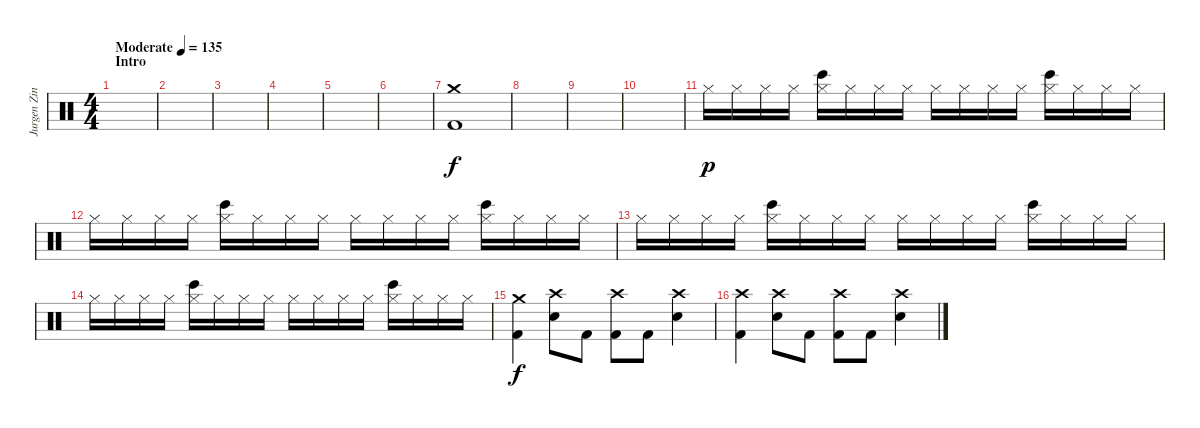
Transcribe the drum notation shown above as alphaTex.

\track ("Jurgen Zing" "Jurgen Zin") {instrument percussion}
\staff {score}
\articulation defaults
\ts (4 4)
\section ("" "Intro")
\tempo (135 "Moderate")
\clef neutral
\ks c
|
|
|
|
|
|
("Crash medium (hit)" "Kick (hit) 2").1 |
|
|
|
"Hi-Hat (closed)".16{dy p} "Hi-Hat (closed)".16 "Hi-Hat (closed)".16 "Hi-Hat (closed)".16 ("Hi-Hat (closed)" "Bongo High (hit)").16 "Hi-Hat (closed)".16 "Hi-Hat (closed)".16 "Hi-Hat (closed)".16 "Hi-Hat (closed)".16 "Hi-Hat (closed)".16 "Hi-Hat (closed)".16 "Hi-Hat (closed)".16 ("Hi-Hat (closed)" "Bongo High (hit)").16 "Hi-Hat (closed)".16 "Hi-Hat (closed)".16 "Hi-Hat (closed)".16 |
"Hi-Hat (closed)".16 "Hi-Hat (closed)".16 "Hi-Hat (closed)".16 "Hi-Hat (closed)".16 ("Hi-Hat (closed)" "Bongo High (hit)").16 "Hi-Hat (closed)".16 "Hi-Hat (closed)".16 "Hi-Hat (closed)".16 "Hi-Hat (closed)".16 "Hi-Hat (closed)".16 "Hi-Hat (closed)".16 "Hi-Hat (closed)".16 ("Hi-Hat (closed)" "Bongo High (hit)").16 "Hi-Hat (closed)".16 "Hi-Hat (closed)".16 "Hi-Hat (closed)".16 |
"Hi-Hat (closed)".16 "Hi-Hat (closed)".16 "Hi-Hat (closed)".16 "Hi-Hat (closed)".16 ("Hi-Hat (closed)" "Bongo High (hit)").16 "Hi-Hat (closed)".16 "Hi-Hat (closed)".16 "Hi-Hat (closed)".16 "Hi-Hat (closed)".16 "Hi-Hat (closed)".16 "Hi-Hat (closed)".16 "Hi-Hat (closed)".16 ("Hi-Hat (closed)" "Bongo High (hit)").16 "Hi-Hat (closed)".16 "Hi-Hat (closed)".16 "Hi-Hat (closed)".16 |
"Hi-Hat (closed)".16 "Hi-Hat (closed)".16 "Hi-Hat (closed)".16 "Hi-Hat (closed)".16 ("Hi-Hat (closed)" "Bongo High (hit)").16 "Hi-Hat (closed)".16 "Hi-Hat (closed)".16 "Hi-Hat (closed)".16 "Hi-Hat (closed)".16 "Hi-Hat (closed)".16 "Hi-Hat (closed)".16 "Hi-Hat (closed)".16 ("Hi-Hat (closed)" "Bongo High (hit)").16 "Hi-Hat (closed)".16 "Hi-Hat (closed)".16 "Hi-Hat (closed)".16 |
("Crash medium (hit)" "Kick (hit) 2").4{dy f} ("Crash high (hit)" "Electric Snare (hit)").8 "Kick (hit) 2".8 ("Crash high (hit)" "Kick (hit) 2").8 "Kick (hit) 2".8 ("Crash high (hit)" "Electric Snare (hit)").4 |
("Crash high (hit)" "Kick (hit) 2").4 ("Crash high (hit)" "Electric Snare (hit)").8 "Kick (hit) 2".8 ("Crash high (hit)" "Kick (hit) 2").8 "Kick (hit) 2".8 ("Crash high (hit)" "Electric Snare (hit)").4
